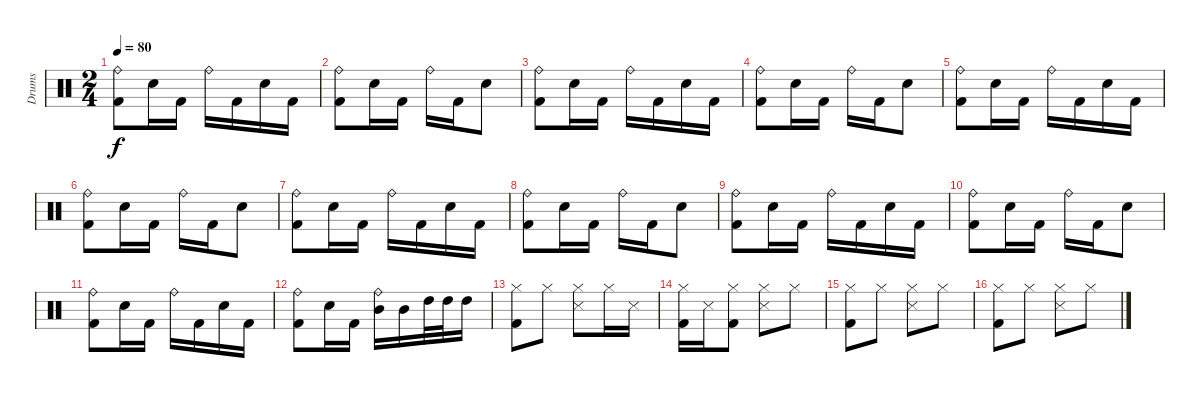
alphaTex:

\track ("Drums" "Drums") {instrument percussion}
\staff {score}
\articulation defaults
\ts (2 4)
\tempo 80
\clef neutral
\ks aminor
("Kick (hit) 2" "Ride (bell)").8{dy f} "Electric Snare (hit)".16 "Kick (hit) 2".16 "Ride (bell)".16 "Kick (hit) 2".16 "Electric Snare (hit)".16 "Kick (hit) 2".16 |
("Kick (hit) 2" "Ride (bell)").8 "Electric Snare (hit)".16 "Kick (hit) 2".16 "Ride (bell)".16 "Kick (hit) 2".16 "Electric Snare (hit)".8 |
("Kick (hit) 2" "Ride (bell)").8 "Electric Snare (hit)".16 "Kick (hit) 2".16 "Ride (bell)".16 "Kick (hit) 2".16 "Electric Snare (hit)".16 "Kick (hit) 2".16 |
("Kick (hit) 2" "Ride (bell)").8 "Electric Snare (hit)".16 "Kick (hit) 2".16 "Ride (bell)".16 "Kick (hit) 2".16 "Electric Snare (hit)".8 |
("Kick (hit) 2" "Ride (bell)").8 "Electric Snare (hit)".16 "Kick (hit) 2".16 "Ride (bell)".16 "Kick (hit) 2".16 "Electric Snare (hit)".16 "Kick (hit) 2".16 |
("Kick (hit) 2" "Ride (bell)").8 "Electric Snare (hit)".16 "Kick (hit) 2".16 "Ride (bell)".16 "Kick (hit) 2".16 "Electric Snare (hit)".8 |
("Kick (hit) 2" "Ride (bell)").8 "Electric Snare (hit)".16 "Kick (hit) 2".16 "Ride (bell)".16 "Kick (hit) 2".16 "Electric Snare (hit)".16 "Kick (hit) 2".16 |
("Kick (hit) 2" "Ride (bell)").8 "Electric Snare (hit)".16 "Kick (hit) 2".16 "Ride (bell)".16 "Kick (hit) 2".16 "Electric Snare (hit)".8 |
("Kick (hit) 2" "Ride (bell)").8 "Electric Snare (hit)".16 "Kick (hit) 2".16 "Ride (bell)".16 "Kick (hit) 2".16 "Electric Snare (hit)".16 "Kick (hit) 2".16 |
("Kick (hit) 2" "Ride (bell)").8 "Electric Snare (hit)".16 "Kick (hit) 2".16 "Ride (bell)".16 "Kick (hit) 2".16 "Electric Snare (hit)".8 |
("Kick (hit) 2" "Ride (bell)").8 "Electric Snare (hit)".16 "Kick (hit) 2".16 "Ride (bell)".16 "Kick (hit) 2".16 "Electric Snare (hit)".16 "Kick (hit) 2".16 |
("Kick (hit) 2" "Ride (bell)").8 "Electric Snare (hit)".16 "Kick (hit) 2".16 ("Mid Tom (hit)" "Ride (bell)").16 "Mid Tom (hit)".16 "High Tom (hit)".32 "High Tom (hit)".32 "High Tom (hit)".16 |
("Hi-Hat (closed)" "Kick (hit) 2").8 "Hi-Hat (closed)".8 ("Hi-Hat (closed)" "Snare (side stick) 3").8 "Hi-Hat (closed)".16 "Snare (side stick) 3".16 |
("Hi-Hat (closed)" "Kick (hit) 2").16 "Snare (side stick) 3".16 ("Kick (hit) 2" "Hi-Hat (closed)").8 ("Hi-Hat (closed)" "Snare (side stick) 3").8 "Hi-Hat (closed)".8 |
("Hi-Hat (closed)" "Kick (hit) 2").8 "Hi-Hat (closed)".8 ("Hi-Hat (closed)" "Snare (side stick) 3").8 "Hi-Hat (closed)".8 |
("Hi-Hat (closed)" "Kick (hit) 2").8 "Hi-Hat (closed)".8 ("Hi-Hat (closed)" "Snare (side stick) 3").8 "Hi-Hat (closed)".8
